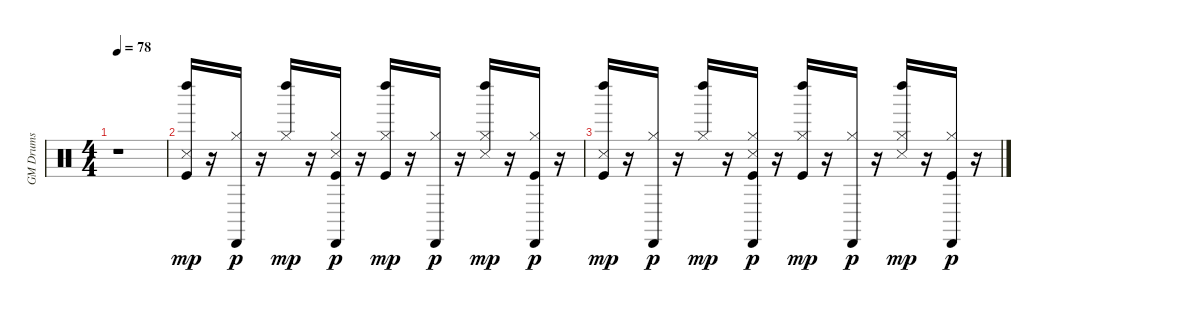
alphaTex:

\track ("GM Drums" "GM Drums") {instrument percussion}
\staff {score}
\articulation defaults
\ts (4 4)
\tempo 78
\clef neutral
\ks c
r.1{dy p} |
("Kick (hit)" "Snare (side stick) 3" "Left Maraca (hit)").16{dy mp} r.16 ("Hi-Hat (closed)" "Cabasa (hit)").16{dy p} r.16 ("Hi-Hat (closed)" "Left Maraca (hit)").16{dy mp} r.16 ("Kick (hit)" "Snare (side stick) 3" "Hi-Hat (closed)" "Cabasa (hit)").16{dy p} r.16 ("Kick (hit)" "Hi-Hat (closed)" "Left Maraca (hit)").16{dy mp} r.16 ("Hi-Hat (closed)" "Cabasa (hit)").16{dy p} r.16 ("Snare (side stick) 3" "Hi-Hat (closed)" "Left Maraca (hit)").16{dy mp} r.16 ("Kick (hit)" "Hi-Hat (closed)" "Cabasa (hit)").16{dy p} r.16 |
("Kick (hit)" "Snare (side stick) 3" "Left Maraca (hit)").16{dy mp} r.16 ("Hi-Hat (closed)" "Cabasa (hit)").16{dy p} r.16 ("Hi-Hat (closed)" "Left Maraca (hit)").16{dy mp} r.16 ("Kick (hit)" "Snare (side stick) 3" "Hi-Hat (closed)" "Cabasa (hit)").16{dy p} r.16 ("Kick (hit)" "Hi-Hat (closed)" "Left Maraca (hit)").16{dy mp} r.16 ("Hi-Hat (closed)" "Cabasa (hit)").16{dy p} r.16 ("Snare (side stick) 3" "Hi-Hat (closed)" "Left Maraca (hit)").16{dy mp} r.16 ("Kick (hit)" "Hi-Hat (closed)" "Cabasa (hit)").16{dy p} r.16
